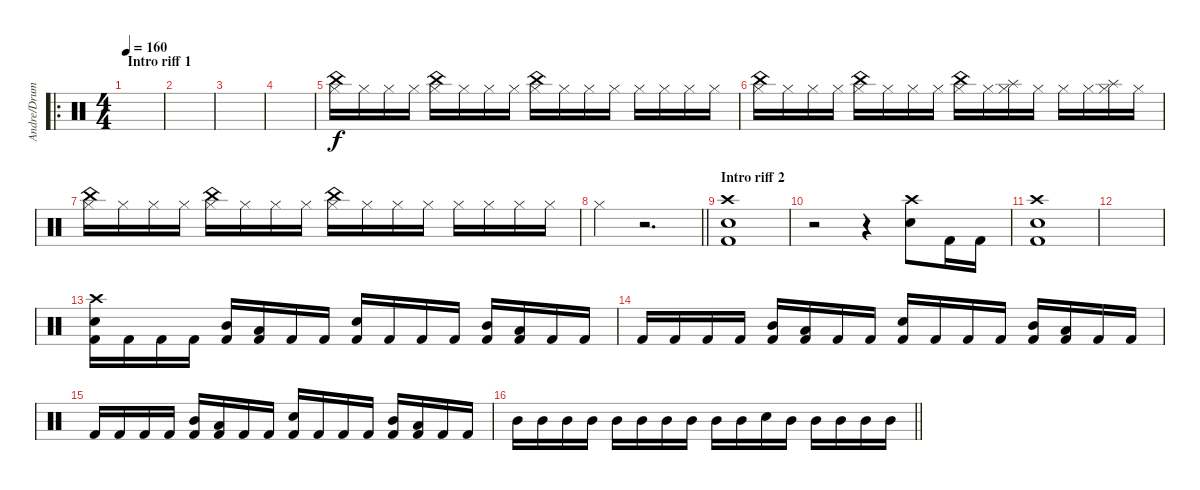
\track ("Andre/Drums" "Andre/Drum") {instrument percussion}
\staff {score}
\articulation defaults
\ro
\ts (4 4)
\section ("" "Intro riff 1")
\tempo 160
\clef neutral
\ks c
|
|
|
|
("China (hit)" "Hi-Hat (closed)").16 "Hi-Hat (closed)".16 "Hi-Hat (closed)".16 "Hi-Hat (closed)".16 ("China (hit)" "Hi-Hat (closed)").16 "Hi-Hat (closed)".16 "Hi-Hat (closed)".16 "Hi-Hat (closed)".16 ("China (hit)" "Hi-Hat (closed)").16 "Hi-Hat (closed)".16 "Hi-Hat (closed)".16 "Hi-Hat (closed)".16 "Hi-Hat (closed)".16 "Hi-Hat (closed)".16 "Hi-Hat (closed)".16 "Hi-Hat (closed)".16 |
("China (hit)" "Hi-Hat (closed)").16 "Hi-Hat (closed)".16 "Hi-Hat (closed)".16 "Hi-Hat (closed)".16 ("China (hit)" "Hi-Hat (closed)").16 "Hi-Hat (closed)".16 "Hi-Hat (closed)".16 "Hi-Hat (closed)".16 ("China (hit)" "Hi-Hat (closed)").16 "Hi-Hat (closed)".16 ("Splash (hit)" "Hi-Hat (closed)").16 "Hi-Hat (closed)".16 "Hi-Hat (closed)".16 "Hi-Hat (closed)".16 ("Splash (hit)" "Hi-Hat (closed)").16 "Hi-Hat (closed)".16 |
("China (hit)" "Hi-Hat (closed)").16 "Hi-Hat (closed)".16 "Hi-Hat (closed)".16 "Hi-Hat (closed)".16 ("China (hit)" "Hi-Hat (closed)").16 "Hi-Hat (closed)".16 "Hi-Hat (closed)".16 "Hi-Hat (closed)".16 ("China (hit)" "Hi-Hat (closed)").16 "Hi-Hat (closed)".16 "Hi-Hat (closed)".16 "Hi-Hat (closed)".16 "Hi-Hat (closed)".16 "Hi-Hat (closed)".16 "Hi-Hat (closed)".16 "Hi-Hat (closed)".16 |
\barLineRight lightlight "Hi-Hat (closed)".4{dy f}
r.2{d} |
\section ("" "Intro riff 2")
("Crash high (hit)" "Snare (hit) 2" "Kick (hit) 2").1 |
r.2 r.4 ("Crash high (hit)" "Snare (hit) 2").8 "Kick (hit) 2".16 "Kick (hit) 2".16 |
("Crash high (hit)" "Snare (hit) 2" "Kick (hit) 2").1 |
|
("Crash high (hit)" "Snare (hit) 2" "Kick (hit) 2").16 "Kick (hit) 2".16 "Kick (hit) 2".16 "Kick (hit) 2".16 ("Mid Tom (hit)" "Kick (hit) 2").16 ("Low Tom (hit)" "Kick (hit) 2").16 "Kick (hit) 2".16 "Kick (hit) 2".16 ("Snare (hit) 2" "Kick (hit) 2").16 "Kick (hit) 2".16 "Kick (hit) 2".16 "Kick (hit) 2".16 ("Mid Tom (hit)" "Kick (hit) 2").16 ("Low Tom (hit)" "Kick (hit) 2").16 "Kick (hit) 2".16 "Kick (hit) 2".16 |
"Kick (hit) 2".16 "Kick (hit) 2".16 "Kick (hit) 2".16 "Kick (hit) 2".16 ("Mid Tom (hit)" "Kick (hit) 2").16 ("Low Tom (hit)" "Kick (hit) 2").16 "Kick (hit) 2".16 "Kick (hit) 2".16 ("Snare (hit) 2" "Kick (hit) 2").16 "Kick (hit) 2".16 "Kick (hit) 2".16 "Kick (hit) 2".16 ("Mid Tom (hit)" "Kick (hit) 2").16 ("Low Tom (hit)" "Kick (hit) 2").16 "Kick (hit) 2".16 "Kick (hit) 2".16 |
"Kick (hit) 2".16 "Kick (hit) 2".16 "Kick (hit) 2".16 "Kick (hit) 2".16 ("Mid Tom (hit)" "Kick (hit) 2").16 ("Low Tom (hit)" "Kick (hit) 2").16 "Kick (hit) 2".16 "Kick (hit) 2".16 ("Snare (hit) 2" "Kick (hit) 2").16 "Kick (hit) 2".16 "Kick (hit) 2".16 "Kick (hit) 2".16 ("Mid Tom (hit)" "Kick (hit) 2").16 ("Low Tom (hit)" "Kick (hit) 2").16 "Kick (hit) 2".16 "Kick (hit) 2".16 |
\barLineRight lightlight "Mid Tom (hit)".16 "Mid Tom (hit)".16 "Mid Tom (hit)".16 "Mid Tom (hit)".16 "Mid Tom (hit)".16 "Mid Tom (hit)".16 "Mid Tom (hit)".16 "Mid Tom (hit)".16 "Mid Tom (hit)".16 "Mid Tom (hit)".16 "Snare (hit) 2".16 "Mid Tom (hit)".16 "Mid Tom (hit)".16 "Mid Tom (hit)".16 "Mid Tom (hit)".16 "Mid Tom (hit)".16
